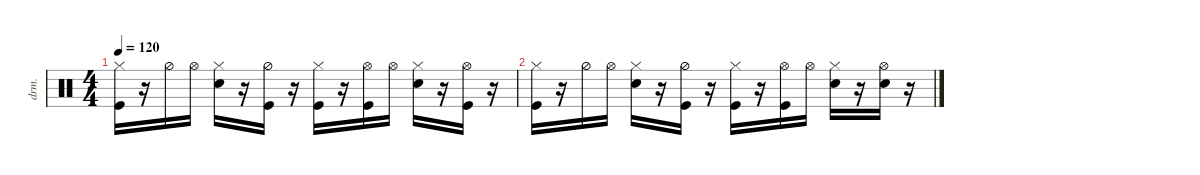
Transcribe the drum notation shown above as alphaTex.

\defaultSystemsLayout 4
\hideDynamics
\bracketExtendMode nobrackets
\otherSystemsTrackNameOrientation horizontal
\track ("Drumkit" "drm.") {instrument percussion}
\staff {score}
\articulation defaults
\ts (4 4)
\tempo 120
\clef neutral
\ks c
("Hi-Hat (closed)" "Kick (hit)").16{dy mf beam Down} r.16{beam Down} "Hi-Hat (half)".16{beam Down} "Hi-Hat (open)".16{beam Down} ("Hi-Hat (closed)" "Snare (hit) 2").16{beam Down} r.16{beam Down} ("Hi-Hat (half)" "Kick (hit)").16{beam Down} r.16{beam Down} ("Hi-Hat (closed)" "Kick (hit)").16{beam Down} r.16{beam Down} ("Hi-Hat (open)" "Kick (hit)").16{beam Down} "Hi-Hat (open)".16{beam Down} ("Hi-Hat (closed)" "Snare (hit) 2").16{beam Down} r.16{beam Down} ("Hi-Hat (open)" "Kick (hit)").16{beam Down} r.16{beam Down} |
("Hi-Hat (closed)" "Kick (hit)").16{beam Down} r.16{beam Down} "Hi-Hat (half)".16{beam Down} "Hi-Hat (open)".16{beam Down} ("Hi-Hat (closed)" "Snare (hit) 2").16{beam Down} r.16{beam Down} ("Hi-Hat (half)" "Kick (hit)").16{beam Down} r.16{beam Down} ("Hi-Hat (closed)" "Kick (hit)").16{beam Down} r.16{beam Down} ("Hi-Hat (open)" "Kick (hit)").16{beam Down} "Hi-Hat (open)".16{beam Down} ("Hi-Hat (closed)" "Snare (hit) 2").16{beam Down} r.16{beam Down} ("Hi-Hat (open)" "Snare (hit) 2").16{beam Down} r.16{beam Down}
